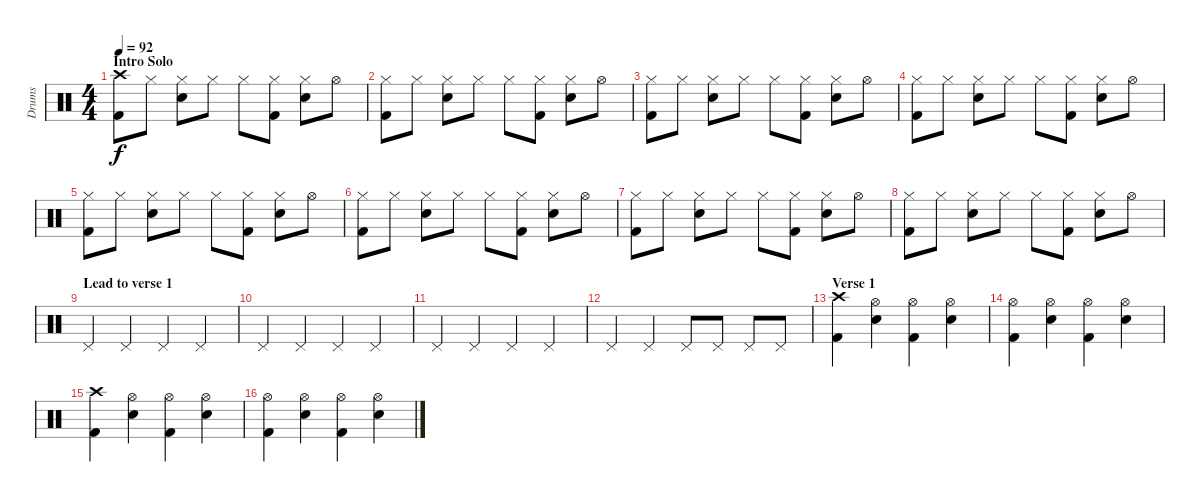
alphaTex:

\track ("Drums" "Drums") {instrument percussion}
\staff {score}
\articulation defaults
\ts (4 4)
\section ("" "Intro Solo")
\tempo 92
\clef neutral
\ks c
("Crash high (hit)" "Kick (hit) 2").8{dy f} "Hi-Hat (closed)".8 ("Hi-Hat (closed)" "Electric Snare (hit)").8 "Hi-Hat (closed)".8 "Hi-Hat (closed)".8 ("Hi-Hat (closed)" "Kick (hit) 2").8 ("Hi-Hat (closed)" "Electric Snare (hit)").8 "Hi-Hat (open)".8 |
("Hi-Hat (closed)" "Kick (hit) 2").8 "Hi-Hat (closed)".8 ("Hi-Hat (closed)" "Electric Snare (hit)").8 "Hi-Hat (closed)".8 "Hi-Hat (closed)".8 ("Hi-Hat (closed)" "Kick (hit) 2").8 ("Hi-Hat (closed)" "Electric Snare (hit)").8 "Hi-Hat (open)".8 |
("Hi-Hat (closed)" "Kick (hit) 2").8 "Hi-Hat (closed)".8 ("Hi-Hat (closed)" "Electric Snare (hit)").8 "Hi-Hat (closed)".8 "Hi-Hat (closed)".8 ("Hi-Hat (closed)" "Kick (hit) 2").8 ("Hi-Hat (closed)" "Electric Snare (hit)").8 "Hi-Hat (open)".8 |
("Hi-Hat (closed)" "Kick (hit) 2").8 "Hi-Hat (closed)".8 ("Hi-Hat (closed)" "Electric Snare (hit)").8 "Hi-Hat (closed)".8 "Hi-Hat (closed)".8 ("Hi-Hat (closed)" "Kick (hit) 2").8 ("Hi-Hat (closed)" "Electric Snare (hit)").8 "Hi-Hat (open)".8 |
("Hi-Hat (closed)" "Kick (hit) 2").8 "Hi-Hat (closed)".8 ("Hi-Hat (closed)" "Electric Snare (hit)").8 "Hi-Hat (closed)".8 "Hi-Hat (closed)".8 ("Hi-Hat (closed)" "Kick (hit) 2").8 ("Hi-Hat (closed)" "Electric Snare (hit)").8 "Hi-Hat (open)".8 |
("Hi-Hat (closed)" "Kick (hit) 2").8 "Hi-Hat (closed)".8 ("Hi-Hat (closed)" "Electric Snare (hit)").8 "Hi-Hat (closed)".8 "Hi-Hat (closed)".8 ("Hi-Hat (closed)" "Kick (hit) 2").8 ("Hi-Hat (closed)" "Electric Snare (hit)").8 "Hi-Hat (open)".8 |
("Hi-Hat (closed)" "Kick (hit) 2").8 "Hi-Hat (closed)".8 ("Hi-Hat (closed)" "Electric Snare (hit)").8 "Hi-Hat (closed)".8 "Hi-Hat (closed)".8 ("Hi-Hat (closed)" "Kick (hit) 2").8 ("Hi-Hat (closed)" "Electric Snare (hit)").8 "Hi-Hat (open)".8 |
("Hi-Hat (closed)" "Kick (hit) 2").8 "Hi-Hat (closed)".8 ("Hi-Hat (closed)" "Electric Snare (hit)").8 "Hi-Hat (closed)".8 "Hi-Hat (closed)".8 ("Hi-Hat (closed)" "Kick (hit) 2").8 ("Hi-Hat (closed)" "Electric Snare (hit)").8 "Hi-Hat (open)".8 |
\section ("" "Lead to verse 1")
"Pedal Hi-Hat (hit)".4 "Pedal Hi-Hat (hit)".4 "Pedal Hi-Hat (hit)".4 "Pedal Hi-Hat (hit)".4 |
"Pedal Hi-Hat (hit)".4 "Pedal Hi-Hat (hit)".4 "Pedal Hi-Hat (hit)".4 "Pedal Hi-Hat (hit)".4 |
"Pedal Hi-Hat (hit)".4 "Pedal Hi-Hat (hit)".4 "Pedal Hi-Hat (hit)".4 "Pedal Hi-Hat (hit)".4 |
"Pedal Hi-Hat (hit)".4 "Pedal Hi-Hat (hit)".4 "Pedal Hi-Hat (hit)".8 "Pedal Hi-Hat (hit)".8 "Pedal Hi-Hat (hit)".8 "Pedal Hi-Hat (hit)".8 |
\section ("" "Verse 1")
("Crash high (hit)" "Kick (hit) 2").4 ("Hi-Hat (open)" "Electric Snare (hit)").4 ("Hi-Hat (open)" "Kick (hit) 2").4 ("Hi-Hat (open)" "Electric Snare (hit)").4 |
("Hi-Hat (open)" "Kick (hit) 2").4 ("Hi-Hat (open)" "Electric Snare (hit)").4 ("Hi-Hat (open)" "Kick (hit) 2").4 ("Hi-Hat (open)" "Electric Snare (hit)").4 |
("Crash high (hit)" "Kick (hit) 2").4 ("Hi-Hat (open)" "Electric Snare (hit)").4 ("Hi-Hat (open)" "Kick (hit) 2").4 ("Hi-Hat (open)" "Electric Snare (hit)").4 |
("Hi-Hat (open)" "Kick (hit) 2").4 ("Hi-Hat (open)" "Electric Snare (hit)").4 ("Hi-Hat (open)" "Kick (hit) 2").4 ("Hi-Hat (open)" "Electric Snare (hit)").4
